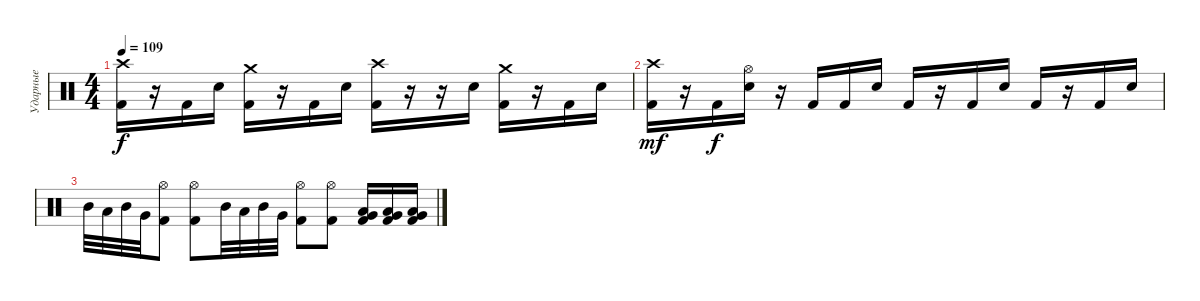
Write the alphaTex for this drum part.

\track ("Ударные" "Ударные") {instrument percussion}
\staff {score}
\articulation defaults
\ts (4 4)
\tempo 109
\clef neutral
\ks c
("Crash high (hit)" "Kick (hit) 2").16{dy f} r.16 "Kick (hit) 2".16 "Electric Snare (hit)".16 ("Crash medium (hit)" "Kick (hit) 2").16 r.16 "Kick (hit) 2".16 "Electric Snare (hit)".16 ("Crash high (hit)" "Kick (hit) 2").16 r.16 r.16 "Electric Snare (hit)".16 ("Crash medium (hit)" "Kick (hit) 2").16 r.16 "Kick (hit) 2".16 "Electric Snare (hit)".16 |
("Crash high (hit)" "Kick (hit) 2").16{dy mf} r.16 "Kick (hit) 2".16{dy f} ("Hi-Hat (open)" "Electric Snare (hit)").16 r.16 "Kick (hit) 2".16 "Kick (hit) 2".16 "Electric Snare (hit)".16 "Kick (hit) 2".16 r.16 "Kick (hit) 2".16 "Electric Snare (hit)".16 "Kick (hit) 2".16 r.16 "Kick (hit) 2".16 "Electric Snare (hit)".16 |
"Mid Tom (hit)".32 "Low Tom (hit)".32 "Mid Tom (hit)".32 "Very Low Tom (hit)".32 ("Hi-Hat (open)" "Kick (hit) 2").8 ("Hi-Hat (open)" "Kick (hit) 2").8 "Mid Tom (hit)".32 "Low Tom (hit)".32 "Mid Tom (hit)".32 "Very Low Tom (hit)".32 ("Hi-Hat (open)" "Kick (hit) 2").8 ("Hi-Hat (open)" "Kick (hit) 2").8 ("Low Tom (hit)" "Very Low Tom (hit)" "Kick (hit) 2").16 ("Very Low Tom (hit)" "Low Tom (hit)" "Kick (hit) 2").16 ("Very Low Tom (hit)" "Low Tom (hit)" "Kick (hit) 2").16
